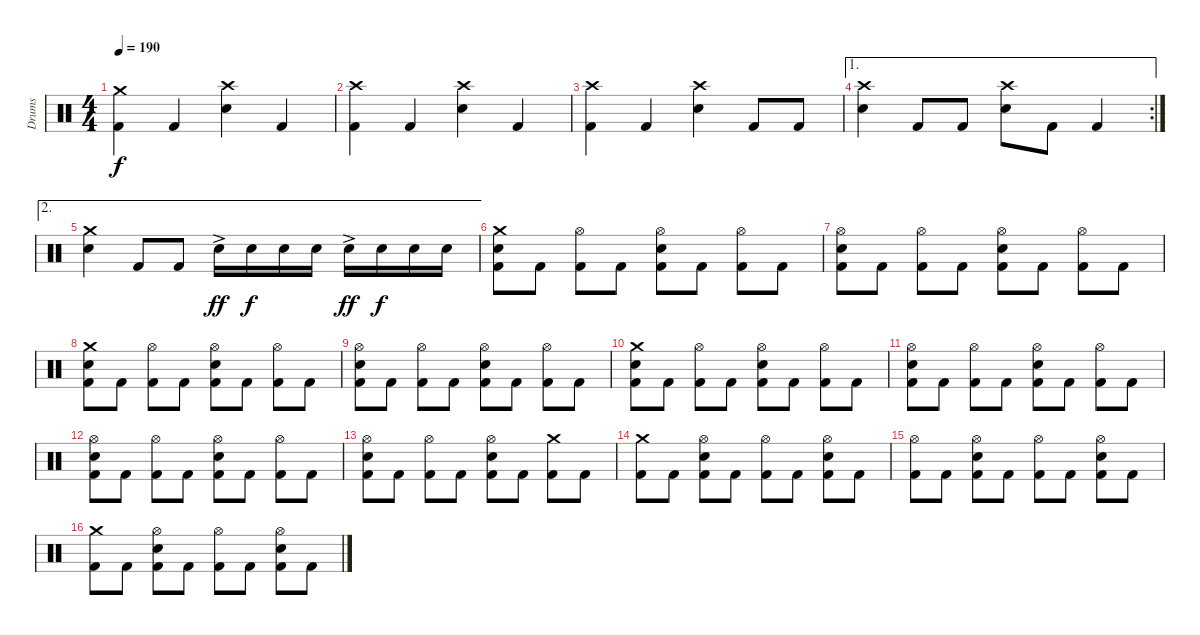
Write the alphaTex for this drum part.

\track ("Drums" "Drums") {instrument percussion}
\staff {score}
\articulation defaults
\ts (4 4)
\tempo 190
\clef neutral
\ks c
("Crash medium (hit)" "Kick (hit) 2").4{dy f} "Kick (hit) 2".4 ("Crash high (hit)" "Electric Snare (hit)").4 "Kick (hit) 2".4 |
("Crash high (hit)" "Kick (hit) 2").4 "Kick (hit) 2".4 ("Crash high (hit)" "Electric Snare (hit)").4 "Kick (hit) 2".4 |
("Crash high (hit)" "Kick (hit) 2").4 "Kick (hit) 2".4 ("Crash high (hit)" "Electric Snare (hit)").4 "Kick (hit) 2".8 "Kick (hit) 2".8 |
\ae 1
\rc 2
("Crash high (hit)" "Electric Snare (hit)").4 "Kick (hit) 2".8 "Kick (hit) 2".8 ("Crash high (hit)" "Electric Snare (hit)").8 "Kick (hit) 2".8 "Kick (hit) 2".4 |
\ae 2
("Crash medium (hit)" "Electric Snare (hit)").4 "Kick (hit) 2".8 "Kick (hit) 2".8 "Electric Snare (hit)"{ac}.16{dy ff} "Electric Snare (hit)".16{dy f} "Electric Snare (hit)".16 "Electric Snare (hit)".16 "Electric Snare (hit)"{ac}.16{dy ff} "Electric Snare (hit)".16{dy f} "Electric Snare (hit)".16 "Electric Snare (hit)".16 |
("Crash medium (hit)" "Electric Snare (hit)" "Kick (hit) 2").8 "Kick (hit) 2".8 ("Hi-Hat (open)" "Kick (hit) 2").8 "Kick (hit) 2".8 ("Hi-Hat (open)" "Electric Snare (hit)" "Kick (hit) 2").8 "Kick (hit) 2".8 ("Hi-Hat (open)" "Kick (hit) 2").8 "Kick (hit) 2".8 |
("Hi-Hat (open)" "Electric Snare (hit)" "Kick (hit) 2").8 "Kick (hit) 2".8 ("Hi-Hat (open)" "Kick (hit) 2").8 "Kick (hit) 2".8 ("Hi-Hat (open)" "Electric Snare (hit)" "Kick (hit) 2").8 "Kick (hit) 2".8 ("Hi-Hat (open)" "Kick (hit) 2").8 "Kick (hit) 2".8 |
("Crash medium (hit)" "Electric Snare (hit)" "Kick (hit) 2").8 "Kick (hit) 2".8 ("Hi-Hat (open)" "Kick (hit) 2").8 "Kick (hit) 2".8 ("Hi-Hat (open)" "Electric Snare (hit)" "Kick (hit) 2").8 "Kick (hit) 2".8 ("Hi-Hat (open)" "Kick (hit) 2").8 "Kick (hit) 2".8 |
("Hi-Hat (open)" "Electric Snare (hit)" "Kick (hit) 2").8 "Kick (hit) 2".8 ("Hi-Hat (open)" "Kick (hit) 2").8 "Kick (hit) 2".8 ("Hi-Hat (open)" "Electric Snare (hit)" "Kick (hit) 2").8 "Kick (hit) 2".8 ("Hi-Hat (open)" "Kick (hit) 2").8 "Kick (hit) 2".8 |
("Crash medium (hit)" "Electric Snare (hit)" "Kick (hit) 2").8 "Kick (hit) 2".8 ("Hi-Hat (open)" "Kick (hit) 2").8 "Kick (hit) 2".8 ("Hi-Hat (open)" "Electric Snare (hit)" "Kick (hit) 2").8 "Kick (hit) 2".8 ("Hi-Hat (open)" "Kick (hit) 2").8 "Kick (hit) 2".8 |
("Hi-Hat (open)" "Electric Snare (hit)" "Kick (hit) 2").8 "Kick (hit) 2".8 ("Hi-Hat (open)" "Kick (hit) 2").8 "Kick (hit) 2".8 ("Hi-Hat (open)" "Electric Snare (hit)" "Kick (hit) 2").8 "Kick (hit) 2".8 ("Hi-Hat (open)" "Kick (hit) 2").8 "Kick (hit) 2".8 |
("Hi-Hat (open)" "Electric Snare (hit)" "Kick (hit) 2").8 "Kick (hit) 2".8 ("Hi-Hat (open)" "Kick (hit) 2").8 "Kick (hit) 2".8 ("Hi-Hat (open)" "Electric Snare (hit)" "Kick (hit) 2").8 "Kick (hit) 2".8 ("Hi-Hat (open)" "Kick (hit) 2").8 "Kick (hit) 2".8 |
("Hi-Hat (open)" "Electric Snare (hit)" "Kick (hit) 2").8 "Kick (hit) 2".8 ("Hi-Hat (open)" "Kick (hit) 2").8 "Kick (hit) 2".8 ("Hi-Hat (open)" "Electric Snare (hit)" "Kick (hit) 2").8 "Kick (hit) 2".8 ("Crash medium (hit)" "Kick (hit) 2").8 "Kick (hit) 2".8 |
("Crash medium (hit)" "Kick (hit) 2").8 "Kick (hit) 2".8 ("Hi-Hat (open)" "Electric Snare (hit)" "Kick (hit) 2").8 "Kick (hit) 2".8 ("Hi-Hat (open)" "Kick (hit) 2").8 "Kick (hit) 2".8 ("Hi-Hat (open)" "Electric Snare (hit)" "Kick (hit) 2").8 "Kick (hit) 2".8 |
("Hi-Hat (open)" "Kick (hit) 2").8 "Kick (hit) 2".8 ("Hi-Hat (open)" "Electric Snare (hit)" "Kick (hit) 2").8 "Kick (hit) 2".8 ("Hi-Hat (open)" "Kick (hit) 2").8 "Kick (hit) 2".8 ("Hi-Hat (open)" "Electric Snare (hit)" "Kick (hit) 2").8 "Kick (hit) 2".8 |
("Crash medium (hit)" "Kick (hit) 2").8 "Kick (hit) 2".8 ("Hi-Hat (open)" "Electric Snare (hit)" "Kick (hit) 2").8 "Kick (hit) 2".8 ("Hi-Hat (open)" "Kick (hit) 2").8 "Kick (hit) 2".8 ("Hi-Hat (open)" "Electric Snare (hit)" "Kick (hit) 2").8 "Kick (hit) 2".8
